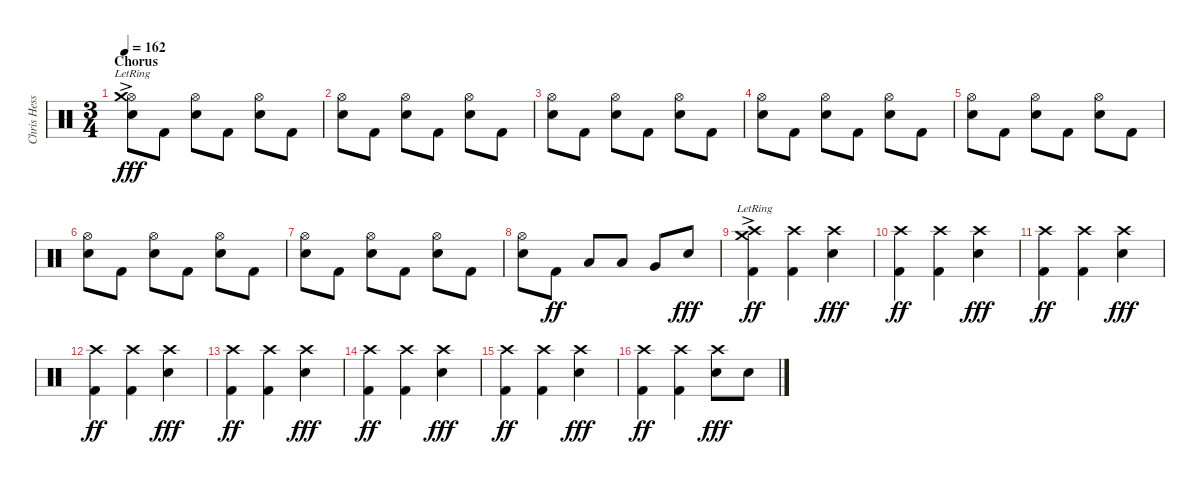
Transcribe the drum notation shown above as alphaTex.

\track ("Chris Hesse" "Chris Hess") {instrument percussion}
\staff {score}
\articulation defaults
\ts (3 4)
\section ("" "Chorus")
\tempo 162
\clef neutral
\ks c
("Hi-Hat (open)" "Crash medium (hit)"{ac lr} "Snare (hit) 2").8{dy fff} "Kick (hit) 2".8 ("Hi-Hat (open)" "Snare (hit) 2").8 "Kick (hit) 2".8 ("Hi-Hat (open)" "Snare (hit) 2").8 "Kick (hit) 2".8 |
("Hi-Hat (open)" "Snare (hit) 2").8 "Kick (hit) 2".8 ("Hi-Hat (open)" "Snare (hit) 2").8 "Kick (hit) 2".8 ("Hi-Hat (open)" "Snare (hit) 2").8 "Kick (hit) 2".8 |
("Hi-Hat (open)" "Snare (hit) 2").8 "Kick (hit) 2".8 ("Hi-Hat (open)" "Snare (hit) 2").8 "Kick (hit) 2".8 ("Hi-Hat (open)" "Snare (hit) 2").8 "Kick (hit) 2".8 |
("Hi-Hat (open)" "Snare (hit) 2").8 "Kick (hit) 2".8 ("Hi-Hat (open)" "Snare (hit) 2").8 "Kick (hit) 2".8 ("Hi-Hat (open)" "Snare (hit) 2").8 "Kick (hit) 2".8 |
("Hi-Hat (open)" "Snare (hit) 2").8 "Kick (hit) 2".8 ("Hi-Hat (open)" "Snare (hit) 2").8 "Kick (hit) 2".8 ("Hi-Hat (open)" "Snare (hit) 2").8 "Kick (hit) 2".8 |
("Hi-Hat (open)" "Snare (hit) 2").8 "Kick (hit) 2".8 ("Hi-Hat (open)" "Snare (hit) 2").8 "Kick (hit) 2".8 ("Hi-Hat (open)" "Snare (hit) 2").8 "Kick (hit) 2".8 |
("Hi-Hat (open)" "Snare (hit) 2").8 "Kick (hit) 2".8 ("Hi-Hat (open)" "Snare (hit) 2").8 "Kick (hit) 2".8 ("Hi-Hat (open)" "Snare (hit) 2").8 "Kick (hit) 2".8 |
("Hi-Hat (open)" "Snare (hit) 2").8 "Kick (hit) 2".8{dy ff} "Low Floor Tom (hit)".8 "Low Tom (hit)".8 "Very Low Tom (hit)".8 "Snare (hit) 2".8{dy fff} |
("Crash high (hit)" "Crash medium (hit)"{ac lr} "Kick (hit) 2").4{dy ff} ("Crash high (hit)" "Kick (hit) 2").4 ("Crash high (hit)" "Snare (hit) 2").4{dy fff} |
("Crash high (hit)" "Kick (hit) 2").4{dy ff} ("Crash high (hit)" "Kick (hit) 2").4 ("Crash high (hit)" "Snare (hit) 2").4{dy fff} |
("Crash high (hit)" "Kick (hit) 2").4{dy ff} ("Crash high (hit)" "Kick (hit) 2").4 ("Crash high (hit)" "Snare (hit) 2").4{dy fff} |
("Crash high (hit)" "Kick (hit) 2").4{dy ff} ("Crash high (hit)" "Kick (hit) 2").4 ("Crash high (hit)" "Snare (hit) 2").4{dy fff} |
("Crash high (hit)" "Kick (hit) 2").4{dy ff} ("Crash high (hit)" "Kick (hit) 2").4 ("Crash high (hit)" "Snare (hit) 2").4{dy fff} |
("Crash high (hit)" "Kick (hit) 2").4{dy ff} ("Crash high (hit)" "Kick (hit) 2").4 ("Crash high (hit)" "Snare (hit) 2").4{dy fff} |
("Crash high (hit)" "Kick (hit) 2").4{dy ff} ("Crash high (hit)" "Kick (hit) 2").4 ("Crash high (hit)" "Snare (hit) 2").4{dy fff} |
("Crash high (hit)" "Kick (hit) 2").4{dy ff} ("Crash high (hit)" "Kick (hit) 2").4 ("Crash high (hit)" "Snare (hit) 2").8{dy fff} "Snare (hit) 2".8
